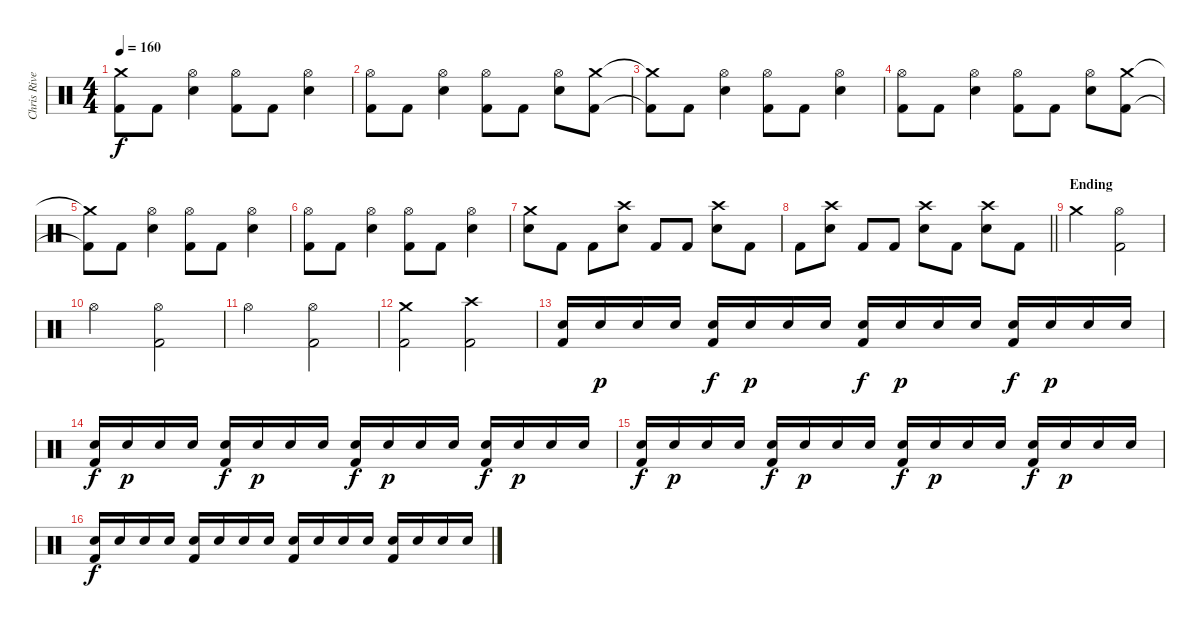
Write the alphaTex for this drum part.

\track ("Chris Rivers" "Chris Rive") {instrument percussion}
\staff {score}
\articulation defaults
\ts (4 4)
\tempo 160
\clef neutral
\ks c
("Crash medium (hit)"{t} "Kick (hit) 2"{t}).8{dy f} "Kick (hit) 2".8 ("Hi-Hat (open)" "Electric Snare (hit)").4 ("Hi-Hat (open)" "Kick (hit) 2").8 "Kick (hit) 2".8 ("Hi-Hat (open)" "Electric Snare (hit)").4 |
("Hi-Hat (open)" "Kick (hit) 2").8 "Kick (hit) 2".8 ("Hi-Hat (open)" "Electric Snare (hit)").4 ("Hi-Hat (open)" "Kick (hit) 2").8 "Kick (hit) 2".8 ("Hi-Hat (open)" "Electric Snare (hit)").8 ("Crash medium (hit)" "Kick (hit) 2").8 |
("Crash medium (hit)"{t} "Kick (hit) 2"{t}).8 "Kick (hit) 2".8 ("Hi-Hat (open)" "Electric Snare (hit)").4 ("Hi-Hat (open)" "Kick (hit) 2").8 "Kick (hit) 2".8 ("Hi-Hat (open)" "Electric Snare (hit)").4 |
("Hi-Hat (open)" "Kick (hit) 2").8 "Kick (hit) 2".8 ("Hi-Hat (open)" "Electric Snare (hit)").4 ("Hi-Hat (open)" "Kick (hit) 2").8 "Kick (hit) 2".8 ("Hi-Hat (open)" "Electric Snare (hit)").8 ("Crash medium (hit)" "Kick (hit) 2").8 |
("Crash medium (hit)"{t} "Kick (hit) 2"{t}).8 "Kick (hit) 2".8 ("Hi-Hat (open)" "Electric Snare (hit)").4 ("Hi-Hat (open)" "Kick (hit) 2").8 "Kick (hit) 2".8 ("Hi-Hat (open)" "Electric Snare (hit)").4 |
("Hi-Hat (open)" "Kick (hit) 2").8 "Kick (hit) 2".8 ("Hi-Hat (open)" "Electric Snare (hit)").4 ("Hi-Hat (open)" "Kick (hit) 2").8 "Kick (hit) 2".8 ("Hi-Hat (open)" "Electric Snare (hit)").4 |
("Crash medium (hit)" "Electric Snare (hit)").8 "Kick (hit) 2".8 "Kick (hit) 2".8 ("Crash high (hit)" "Electric Snare (hit)").8 "Kick (hit) 2".8 "Kick (hit) 2".8 ("Crash high (hit)" "Electric Snare (hit)").8 "Kick (hit) 2".8 |
\barLineRight lightlight "Kick (hit) 2".8
("Crash high (hit)" "Electric Snare (hit)").8 "Kick (hit) 2".8 "Kick (hit) 2".8 ("Crash high (hit)" "Electric Snare (hit)").8 "Kick (hit) 2".8 ("Crash high (hit)" "Electric Snare (hit)").8 "Kick (hit) 2".8 |
\section ("" "Ending")
"Crash medium (hit)".2 ("Hi-Hat (open)" "Kick (hit) 2").2 |
"Hi-Hat (open)".2 ("Hi-Hat (open)" "Kick (hit) 2").2 |
"Hi-Hat (open)".2 ("Hi-Hat (open)" "Kick (hit) 2").2 |
("Crash medium (hit)" "Kick (hit) 2").2 ("Crash high (hit)" "Kick (hit) 2").2 |
("Snare (hit) 2" "Kick (hit) 2").16 "Snare (hit) 2".16{dy p} "Snare (hit) 2".16 "Snare (hit) 2".16 ("Snare (hit) 2" "Kick (hit) 2").16{dy f} "Snare (hit) 2".16{dy p} "Snare (hit) 2".16 "Snare (hit) 2".16 ("Snare (hit) 2" "Kick (hit) 2").16{dy f} "Snare (hit) 2".16{dy p} "Snare (hit) 2".16 "Snare (hit) 2".16 ("Snare (hit) 2" "Kick (hit) 2").16{dy f} "Snare (hit) 2".16{dy p} "Snare (hit) 2".16 "Snare (hit) 2".16 |
("Snare (hit) 2" "Kick (hit) 2").16{dy f} "Snare (hit) 2".16{dy p} "Snare (hit) 2".16 "Snare (hit) 2".16 ("Snare (hit) 2" "Kick (hit) 2").16{dy f} "Snare (hit) 2".16{dy p} "Snare (hit) 2".16 "Snare (hit) 2".16 ("Snare (hit) 2" "Kick (hit) 2").16{dy f} "Snare (hit) 2".16{dy p} "Snare (hit) 2".16 "Snare (hit) 2".16 ("Snare (hit) 2" "Kick (hit) 2").16{dy f} "Snare (hit) 2".16{dy p} "Snare (hit) 2".16 "Snare (hit) 2".16 |
("Snare (hit) 2" "Kick (hit) 2").16{dy f} "Snare (hit) 2".16{dy p} "Snare (hit) 2".16 "Snare (hit) 2".16 ("Snare (hit) 2" "Kick (hit) 2").16{dy f} "Snare (hit) 2".16{dy p} "Snare (hit) 2".16 "Snare (hit) 2".16 ("Snare (hit) 2" "Kick (hit) 2").16{dy f} "Snare (hit) 2".16{dy p} "Snare (hit) 2".16 "Snare (hit) 2".16 ("Snare (hit) 2" "Kick (hit) 2").16{dy f} "Snare (hit) 2".16{dy p} "Snare (hit) 2".16 "Snare (hit) 2".16 |
("Electric Snare (hit)" "Kick (hit) 2").16{dy f} "Electric Snare (hit)".16 "Electric Snare (hit)".16 "Electric Snare (hit)".16 ("Electric Snare (hit)" "Kick (hit) 2").16 "Electric Snare (hit)".16 "Electric Snare (hit)".16 "Electric Snare (hit)".16 ("Electric Snare (hit)" "Kick (hit) 2").16 "Electric Snare (hit)".16 "Electric Snare (hit)".16 "Electric Snare (hit)".16 ("Electric Snare (hit)" "Kick (hit) 2").16 "Electric Snare (hit)".16 "Electric Snare (hit)".16 "Electric Snare (hit)".16
